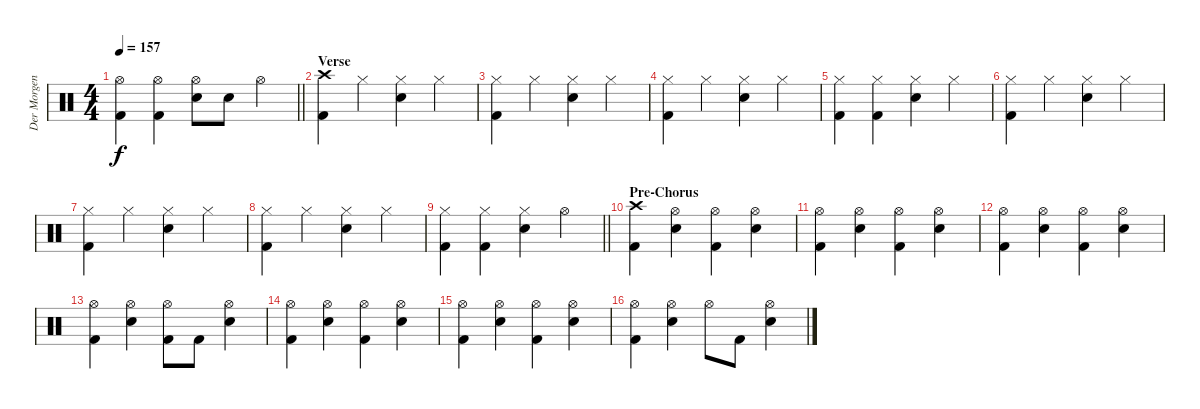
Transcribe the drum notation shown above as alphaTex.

\track ("Der Morgenstern" "Der Morgen") {instrument percussion}
\staff {score}
\articulation defaults
\ts (4 4)
\tempo 157
\clef neutral
\barLineRight lightlight
\ks c
("Hi-Hat (open)" "Kick (hit) 2").4{dy f} ("Hi-Hat (open)" "Kick (hit) 2").4 ("Hi-Hat (open)" "Electric Snare (hit)").8 "Electric Snare (hit)".8 "Hi-Hat (open)".4 |
\section ("" "Verse")
("Crash high (hit)" "Kick (hit) 2").4 "Hi-Hat (closed)".4 ("Hi-Hat (closed)" "Electric Snare (hit)").4 "Hi-Hat (closed)".4 |
("Hi-Hat (closed)" "Kick (hit) 2").4 "Hi-Hat (closed)".4 ("Hi-Hat (closed)" "Electric Snare (hit)").4 "Hi-Hat (closed)".4 |
("Hi-Hat (closed)" "Kick (hit) 2").4 "Hi-Hat (closed)".4 ("Hi-Hat (closed)" "Electric Snare (hit)").4 "Hi-Hat (closed)".4 |
("Hi-Hat (closed)" "Kick (hit) 2").4 ("Hi-Hat (closed)" "Kick (hit) 2").4 ("Hi-Hat (closed)" "Electric Snare (hit)").4 "Hi-Hat (closed)".4 |
("Hi-Hat (closed)" "Kick (hit) 2").4 "Hi-Hat (closed)".4 ("Hi-Hat (closed)" "Electric Snare (hit)").4 "Hi-Hat (closed)".4 |
("Hi-Hat (closed)" "Kick (hit) 2").4 "Hi-Hat (closed)".4 ("Hi-Hat (closed)" "Electric Snare (hit)").4 "Hi-Hat (closed)".4 |
("Hi-Hat (closed)" "Kick (hit) 2").4 "Hi-Hat (closed)".4 ("Hi-Hat (closed)" "Electric Snare (hit)").4 "Hi-Hat (closed)".4 |
\barLineRight lightlight
("Hi-Hat (closed)" "Kick (hit) 2").4 ("Hi-Hat (closed)" "Kick (hit) 2").4 ("Hi-Hat (closed)" "Electric Snare (hit)").4 "Hi-Hat (open)".4 |
\section ("" "Pre-Chorus")
("Crash high (hit)" "Kick (hit) 2").4 ("Hi-Hat (open)" "Electric Snare (hit)").4 ("Hi-Hat (open)" "Kick (hit) 2").4 ("Hi-Hat (open)" "Electric Snare (hit)").4 |
("Hi-Hat (open)" "Kick (hit) 2").4 ("Hi-Hat (open)" "Electric Snare (hit)").4 ("Hi-Hat (open)" "Kick (hit) 2").4 ("Hi-Hat (open)" "Electric Snare (hit)").4 |
("Hi-Hat (open)" "Kick (hit) 2").4 ("Hi-Hat (open)" "Electric Snare (hit)").4 ("Hi-Hat (open)" "Kick (hit) 2").4 ("Hi-Hat (open)" "Electric Snare (hit)").4 |
("Hi-Hat (open)" "Kick (hit) 2").4 ("Hi-Hat (open)" "Electric Snare (hit)").4 ("Hi-Hat (open)" "Kick (hit) 2").8 "Kick (hit) 2".8 ("Hi-Hat (open)" "Electric Snare (hit)").4 |
("Hi-Hat (open)" "Kick (hit) 2").4 ("Hi-Hat (open)" "Electric Snare (hit)").4 ("Hi-Hat (open)" "Kick (hit) 2").4 ("Hi-Hat (open)" "Electric Snare (hit)").4 |
("Hi-Hat (open)" "Kick (hit) 2").4 ("Hi-Hat (open)" "Electric Snare (hit)").4 ("Hi-Hat (open)" "Kick (hit) 2").4 ("Hi-Hat (open)" "Electric Snare (hit)").4 |
("Hi-Hat (open)" "Kick (hit) 2").4 ("Hi-Hat (open)" "Electric Snare (hit)").4 "Hi-Hat (open)".8 "Kick (hit) 2".8 ("Hi-Hat (open)" "Electric Snare (hit)").4
